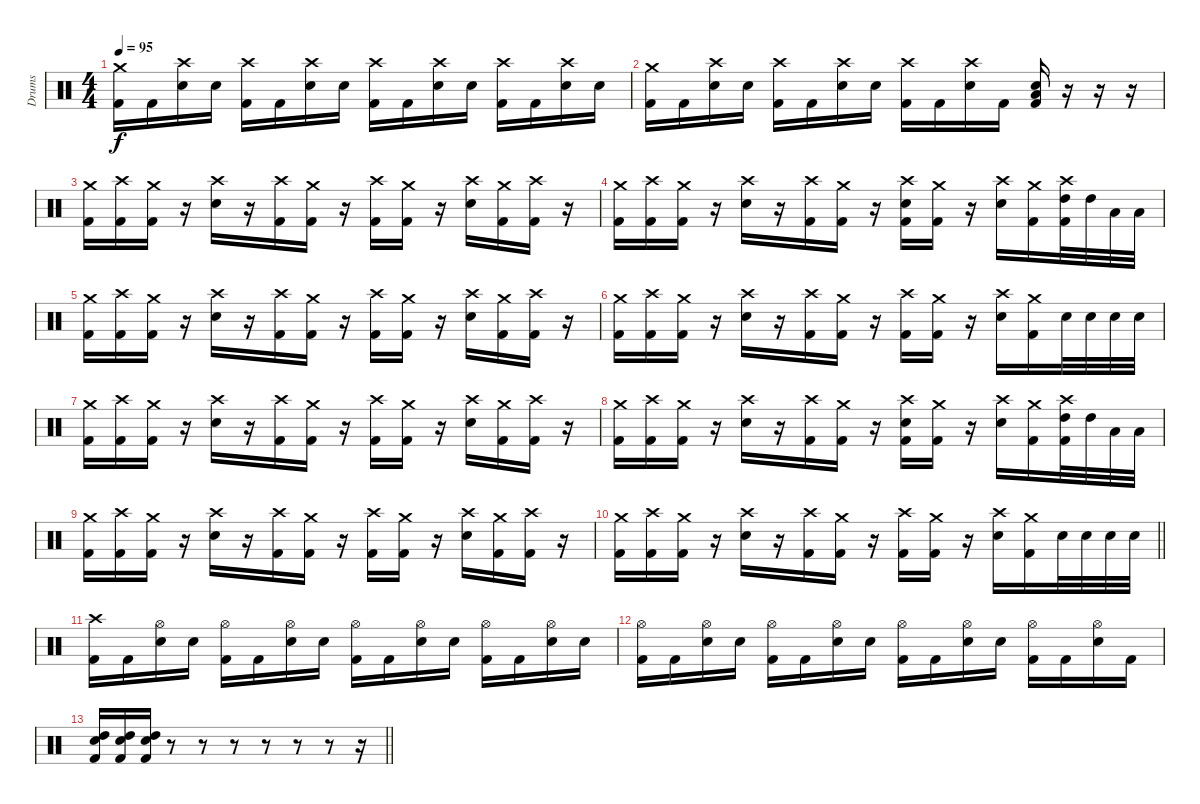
\track ("Drums" "Drums") {instrument percussion}
\staff {score}
\articulation defaults
\ts (4 4)
\tempo 95
\clef neutral
\ks c
("Crash medium (hit)" "Kick (hit) 2").16{dy f} "Kick (hit) 2".16 ("Crash high (hit)" "Electric Snare (hit)").16 "Electric Snare (hit)".16 ("Crash high (hit)" "Kick (hit) 2").16 "Kick (hit) 2".16 ("Crash high (hit)" "Electric Snare (hit)").16 "Electric Snare (hit)".16 ("Crash high (hit)" "Kick (hit) 2").16 "Kick (hit) 2".16 ("Crash high (hit)" "Electric Snare (hit)").16 "Electric Snare (hit)".16 ("Crash high (hit)" "Kick (hit) 2").16 "Kick (hit) 2".16 ("Crash high (hit)" "Electric Snare (hit)").16 "Electric Snare (hit)".16 |
("Crash medium (hit)" "Kick (hit) 2").16 "Kick (hit) 2".16 ("Crash high (hit)" "Electric Snare (hit)").16 "Electric Snare (hit)".16 ("Crash high (hit)" "Kick (hit) 2").16 "Kick (hit) 2".16 ("Crash high (hit)" "Electric Snare (hit)").16 "Electric Snare (hit)".16 ("Crash high (hit)" "Kick (hit) 2").16 "Kick (hit) 2".16 ("Crash high (hit)" "Electric Snare (hit)").16 "Kick (hit) 2".16 ("Electric Snare (hit)" "Low Tom (hit)" "Kick (hit) 2").16 r.16 r.16 r.16 |
("Crash medium (hit)" "Kick (hit) 2").16 ("Crash high (hit)" "Kick (hit) 2").16 ("Crash medium (hit)" "Kick (hit) 2").16 r.16 ("Crash high (hit)" "Electric Snare (hit)").16 r.16 ("Crash high (hit)" "Kick (hit) 2").16 ("Crash medium (hit)" "Kick (hit) 2").16 r.16 ("Crash high (hit)" "Kick (hit) 2").16 ("Crash medium (hit)" "Kick (hit) 2").16 r.16 ("Crash high (hit)" "Electric Snare (hit)").16 ("Crash medium (hit)" "Kick (hit) 2").16 ("Crash high (hit)" "Kick (hit) 2").16 r.16 |
("Crash medium (hit)" "Kick (hit) 2").16 ("Crash high (hit)" "Kick (hit) 2").16 ("Crash medium (hit)" "Kick (hit) 2").16 r.16 ("Crash high (hit)" "Electric Snare (hit)").16 r.16 ("Crash high (hit)" "Kick (hit) 2").16 ("Crash medium (hit)" "Kick (hit) 2").16 r.16 ("Crash high (hit)" "Electric Snare (hit)" "Kick (hit) 2").16 ("Crash medium (hit)" "Kick (hit) 2").16 r.16 ("Crash high (hit)" "Electric Snare (hit)").16 ("Crash medium (hit)" "Kick (hit) 2").16 ("Crash high (hit)" "High Tom (hit)" "Kick (hit) 2").32 "High Tom (hit)".32 "Low Tom (hit)".32 "Low Tom (hit)".32 |
("Crash medium (hit)" "Kick (hit) 2").16 ("Crash high (hit)" "Kick (hit) 2").16 ("Crash medium (hit)" "Kick (hit) 2").16 r.16 ("Crash high (hit)" "Electric Snare (hit)").16 r.16 ("Crash high (hit)" "Kick (hit) 2").16 ("Crash medium (hit)" "Kick (hit) 2").16 r.16 ("Crash high (hit)" "Kick (hit) 2").16 ("Crash medium (hit)" "Kick (hit) 2").16 r.16 ("Crash high (hit)" "Electric Snare (hit)").16 ("Crash medium (hit)" "Kick (hit) 2").16 ("Crash high (hit)" "Kick (hit) 2").16 r.16 |
("Crash medium (hit)" "Kick (hit) 2").16 ("Crash high (hit)" "Kick (hit) 2").16 ("Crash medium (hit)" "Kick (hit) 2").16 r.16 ("Crash high (hit)" "Electric Snare (hit)").16 r.16 ("Crash high (hit)" "Kick (hit) 2").16 ("Crash medium (hit)" "Kick (hit) 2").16 r.16 ("Crash high (hit)" "Kick (hit) 2").16 ("Crash medium (hit)" "Kick (hit) 2").16 r.16 ("Crash high (hit)" "Electric Snare (hit)").16 ("Crash medium (hit)" "Kick (hit) 2").16 "Electric Snare (hit)".32 "Electric Snare (hit)".32 "Electric Snare (hit)".32 "Electric Snare (hit)".32 |
("Crash medium (hit)" "Kick (hit) 2").16 ("Crash high (hit)" "Kick (hit) 2").16 ("Crash medium (hit)" "Kick (hit) 2").16 r.16 ("Crash high (hit)" "Electric Snare (hit)").16 r.16 ("Crash high (hit)" "Kick (hit) 2").16 ("Crash medium (hit)" "Kick (hit) 2").16 r.16 ("Crash high (hit)" "Kick (hit) 2").16 ("Crash medium (hit)" "Kick (hit) 2").16 r.16 ("Crash high (hit)" "Electric Snare (hit)").16 ("Crash medium (hit)" "Kick (hit) 2").16 ("Crash high (hit)" "Kick (hit) 2").16 r.16 |
("Crash medium (hit)" "Kick (hit) 2").16 ("Crash high (hit)" "Kick (hit) 2").16 ("Crash medium (hit)" "Kick (hit) 2").16 r.16 ("Crash high (hit)" "Electric Snare (hit)").16 r.16 ("Crash high (hit)" "Kick (hit) 2").16 ("Crash medium (hit)" "Kick (hit) 2").16 r.16 ("Crash high (hit)" "Electric Snare (hit)" "Kick (hit) 2").16 ("Crash medium (hit)" "Kick (hit) 2").16 r.16 ("Crash high (hit)" "Electric Snare (hit)").16 ("Crash medium (hit)" "Kick (hit) 2").16 ("Crash high (hit)" "High Tom (hit)" "Kick (hit) 2").32 "High Tom (hit)".32 "Low Tom (hit)".32 "Low Tom (hit)".32 |
("Crash medium (hit)" "Kick (hit) 2").16 ("Crash high (hit)" "Kick (hit) 2").16 ("Crash medium (hit)" "Kick (hit) 2").16 r.16 ("Crash high (hit)" "Electric Snare (hit)").16 r.16 ("Crash high (hit)" "Kick (hit) 2").16 ("Crash medium (hit)" "Kick (hit) 2").16 r.16 ("Crash high (hit)" "Kick (hit) 2").16 ("Crash medium (hit)" "Kick (hit) 2").16 r.16 ("Crash high (hit)" "Electric Snare (hit)").16 ("Crash medium (hit)" "Kick (hit) 2").16 ("Crash high (hit)" "Kick (hit) 2").16 r.16 |
\barLineRight lightlight
("Crash medium (hit)" "Kick (hit) 2").16 ("Crash high (hit)" "Kick (hit) 2").16 ("Crash medium (hit)" "Kick (hit) 2").16 r.16 ("Crash high (hit)" "Electric Snare (hit)").16 r.16 ("Crash high (hit)" "Kick (hit) 2").16 ("Crash medium (hit)" "Kick (hit) 2").16 r.16 ("Crash high (hit)" "Kick (hit) 2").16 ("Crash medium (hit)" "Kick (hit) 2").16 r.16 ("Crash high (hit)" "Electric Snare (hit)").16 ("Crash medium (hit)" "Kick (hit) 2").16 "Electric Snare (hit)".32 "Electric Snare (hit)".32 "Electric Snare (hit)".32 "Electric Snare (hit)".32 |
("Crash high (hit)" "Kick (hit) 2").16 "Kick (hit) 2".16 ("Hi-Hat (open)" "Electric Snare (hit)").16 "Electric Snare (hit)".16 ("Hi-Hat (open)" "Kick (hit) 2").16 "Kick (hit) 2".16 ("Hi-Hat (open)" "Electric Snare (hit)").16 "Electric Snare (hit)".16 ("Hi-Hat (open)" "Kick (hit) 2").16 "Kick (hit) 2".16 ("Hi-Hat (open)" "Electric Snare (hit)").16 "Electric Snare (hit)".16 ("Hi-Hat (open)" "Kick (hit) 2").16 "Kick (hit) 2".16 ("Hi-Hat (open)" "Electric Snare (hit)").16 "Electric Snare (hit)".16 |
("Hi-Hat (open)" "Kick (hit) 2").16 "Kick (hit) 2".16 ("Hi-Hat (open)" "Electric Snare (hit)").16 "Electric Snare (hit)".16 ("Hi-Hat (open)" "Kick (hit) 2").16 "Kick (hit) 2".16 ("Hi-Hat (open)" "Electric Snare (hit)").16 "Electric Snare (hit)".16 ("Hi-Hat (open)" "Kick (hit) 2").16 "Kick (hit) 2".16 ("Hi-Hat (open)" "Electric Snare (hit)").16 "Electric Snare (hit)".16 ("Hi-Hat (open)" "Kick (hit) 2").16 "Kick (hit) 2".16 ("Hi-Hat (open)" "Electric Snare (hit)").16 "Kick (hit) 2".16 |
\barLineRight lightlight
("Electric Snare (hit)" "High Tom (hit)" "Kick (hit) 2").16 ("Electric Snare (hit)" "High Tom (hit)" "Kick (hit) 2").16 ("Electric Snare (hit)" "High Tom (hit)" "Kick (hit) 2").16 r.8 r.8 r.8 r.8 r.8 r.8 r.16
